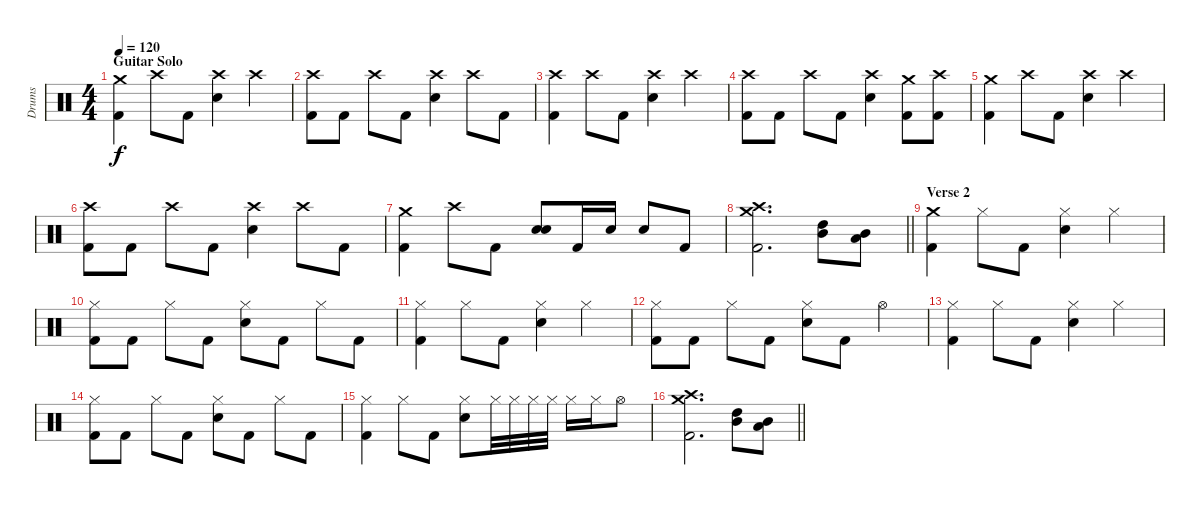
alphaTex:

\track ("Drums" "Drums") {instrument percussion}
\staff {score}
\articulation defaults
\ts (4 4)
\section ("" "Guitar Solo")
\tempo 120
\clef neutral
\ks c
("Crash medium (hit)" "Kick (hit) 2").4{dy f} "Crash high (hit)".8 "Kick (hit) 2".8 ("Crash high (hit)" "Electric Snare (hit)").4 "Crash high (hit)".4 |
("Crash high (hit)" "Kick (hit) 2").8 "Kick (hit) 2".8 "Crash high (hit)".8 "Kick (hit) 2".8 ("Crash high (hit)" "Electric Snare (hit)").4 "Crash high (hit)".8 "Kick (hit) 2".8 |
("Crash high (hit)" "Kick (hit) 2").4 "Crash high (hit)".8 "Kick (hit) 2".8 ("Crash high (hit)" "Electric Snare (hit)").4 "Crash high (hit)".4 |
("Crash high (hit)" "Kick (hit) 2").8 "Kick (hit) 2".8 "Crash high (hit)".8 "Kick (hit) 2".8 ("Crash high (hit)" "Electric Snare (hit)").4 ("Crash medium (hit)" "Kick (hit) 2").8 ("Crash high (hit)" "Kick (hit) 2").8 |
("Crash medium (hit)" "Kick (hit) 2").4 "Crash high (hit)".8 "Kick (hit) 2".8 ("Crash high (hit)" "Electric Snare (hit)").4 "Crash high (hit)".4 |
("Crash high (hit)" "Kick (hit) 2").8 "Kick (hit) 2".8 "Crash high (hit)".8 "Kick (hit) 2".8 ("Crash high (hit)" "Electric Snare (hit)").4 "Crash high (hit)".8 "Kick (hit) 2".8 |
("Crash medium (hit)" "Kick (hit) 2").4 "Crash high (hit)".8 "Kick (hit) 2".8 ("Electric Snare (hit)" "Electric Snare (hit)").8{bd 480} "Kick (hit) 2".16 "Electric Snare (hit)".16 "Electric Snare (hit)".8 "Kick (hit) 2".8 |
\barLineRight lightlight
("Crash medium (hit)" "Crash high (hit)" "Kick (hit) 2").2{d} ("High Tom (hit)" "Mid Tom (hit)").8{bd 60} ("Mid Tom (hit)" "Low Tom (hit)").8{bd 60} |
\section ("" "Verse 2")
("Crash medium (hit)" "Kick (hit) 2").4 "Hi-Hat (closed)".8 "Kick (hit) 2".8 ("Hi-Hat (closed)" "Electric Snare (hit)").4 "Hi-Hat (closed)".4 |
("Hi-Hat (closed)" "Kick (hit) 2").8 "Kick (hit) 2".8 "Hi-Hat (closed)".8 "Kick (hit) 2".8 ("Hi-Hat (closed)" "Electric Snare (hit)").8 "Kick (hit) 2".8 "Hi-Hat (closed)".8 "Kick (hit) 2".8 |
("Hi-Hat (closed)" "Kick (hit) 2").4 "Hi-Hat (closed)".8 "Kick (hit) 2".8 ("Hi-Hat (closed)" "Electric Snare (hit)").4 "Hi-Hat (closed)".4 |
("Hi-Hat (closed)" "Kick (hit) 2").8 "Kick (hit) 2".8 "Hi-Hat (closed)".8 "Kick (hit) 2".8 ("Hi-Hat (closed)" "Electric Snare (hit)").8 "Kick (hit) 2".8 "Hi-Hat (open)".4 |
("Hi-Hat (closed)" "Kick (hit) 2").4 "Hi-Hat (closed)".8 "Kick (hit) 2".8 ("Hi-Hat (closed)" "Electric Snare (hit)").4 "Hi-Hat (closed)".4 |
("Hi-Hat (closed)" "Kick (hit) 2").8 "Kick (hit) 2".8 "Hi-Hat (closed)".8 "Kick (hit) 2".8 ("Hi-Hat (closed)" "Electric Snare (hit)").8 "Kick (hit) 2".8 "Hi-Hat (closed)".8 "Kick (hit) 2".8 |
("Hi-Hat (closed)" "Kick (hit) 2").4 "Hi-Hat (closed)".8 "Kick (hit) 2".8 ("Hi-Hat (closed)" "Electric Snare (hit)").8 "Hi-Hat (closed)".32 "Hi-Hat (closed)".32 "Hi-Hat (closed)".32 "Hi-Hat (closed)".32 "Hi-Hat (closed)".16 "Hi-Hat (closed)".16 "Hi-Hat (open)".8 |
\barLineRight lightlight
("Crash medium (hit)" "Crash high (hit)" "Kick (hit) 2").2{d} ("High Tom (hit)" "Mid Tom (hit)").8{bd 60} ("Mid Tom (hit)" "Low Tom (hit)").8{bd 60}
